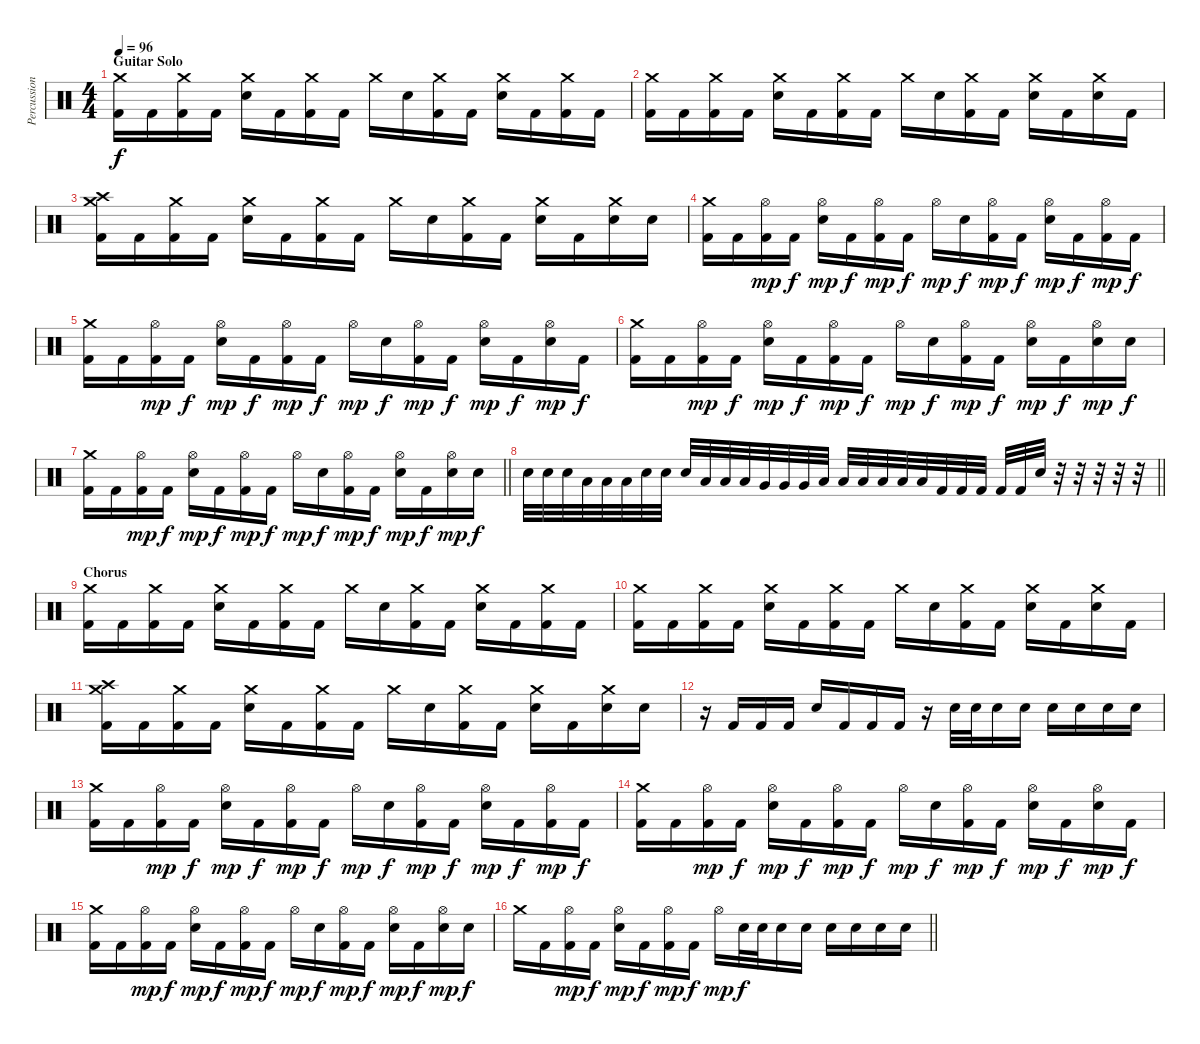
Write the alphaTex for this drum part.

\track ("Percussion" "Percussion") {instrument percussion}
\staff {score}
\articulation defaults
\ts (4 4)
\section ("" "Guitar Solo")
\tempo 96
\clef neutral
\ks c
("Crash medium (hit)" "Kick (hit) 2").16{dy f} "Kick (hit) 2".16 ("Crash medium (hit)" "Kick (hit) 2").16 "Kick (hit) 2".16 ("Crash medium (hit)" "Electric Snare (hit)").16 "Kick (hit) 2".16 ("Crash medium (hit)" "Kick (hit) 2").16 "Kick (hit) 2".16 "Crash medium (hit)".16 "Electric Snare (hit)".16 ("Crash medium (hit)" "Kick (hit) 2").16 "Kick (hit) 2".16 ("Crash medium (hit)" "Electric Snare (hit)").16 "Kick (hit) 2".16 ("Crash medium (hit)" "Kick (hit) 2").16 "Kick (hit) 2".16 |
("Crash medium (hit)" "Kick (hit) 2").16 "Kick (hit) 2".16 ("Crash medium (hit)" "Kick (hit) 2").16 "Kick (hit) 2".16 ("Crash medium (hit)" "Electric Snare (hit)").16 "Kick (hit) 2".16 ("Crash medium (hit)" "Kick (hit) 2").16 "Kick (hit) 2".16 "Crash medium (hit)".16 "Electric Snare (hit)".16 ("Crash medium (hit)" "Kick (hit) 2").16 "Kick (hit) 2".16 ("Crash medium (hit)" "Electric Snare (hit)").16 "Kick (hit) 2".16 ("Crash medium (hit)" "Electric Snare (hit)").16 "Kick (hit) 2".16 |
("Crash high (hit)" "Crash medium (hit)" "Kick (hit) 2").16 "Kick (hit) 2".16 ("Crash medium (hit)" "Kick (hit) 2").16 "Kick (hit) 2".16 ("Crash medium (hit)" "Electric Snare (hit)").16 "Kick (hit) 2".16 ("Crash medium (hit)" "Kick (hit) 2").16 "Kick (hit) 2".16 "Crash medium (hit)".16 "Electric Snare (hit)".16 ("Crash medium (hit)" "Kick (hit) 2").16 "Kick (hit) 2".16 ("Crash medium (hit)" "Electric Snare (hit)").16 "Kick (hit) 2".16 ("Crash medium (hit)" "Electric Snare (hit)").16 "Electric Snare (hit)".16 |
("Crash medium (hit)" "Kick (hit) 2").16 "Kick (hit) 2".16 ("Hi-Hat (open)" "Kick (hit) 2").16{dy mp} "Kick (hit) 2".16{dy f} ("Hi-Hat (open)" "Electric Snare (hit)").16{dy mp} "Kick (hit) 2".16{dy f} ("Hi-Hat (open)" "Kick (hit) 2").16{dy mp} "Kick (hit) 2".16{dy f} "Hi-Hat (open)".16{dy mp} "Electric Snare (hit)".16{dy f} ("Hi-Hat (open)" "Kick (hit) 2").16{dy mp} "Kick (hit) 2".16{dy f} ("Hi-Hat (open)" "Electric Snare (hit)").16{dy mp} "Kick (hit) 2".16{dy f} ("Hi-Hat (open)" "Kick (hit) 2").16{dy mp} "Kick (hit) 2".16{dy f} |
("Crash medium (hit)" "Kick (hit) 2").16 "Kick (hit) 2".16 ("Hi-Hat (open)" "Kick (hit) 2").16{dy mp} "Kick (hit) 2".16{dy f} ("Hi-Hat (open)" "Electric Snare (hit)").16{dy mp} "Kick (hit) 2".16{dy f} ("Hi-Hat (open)" "Kick (hit) 2").16{dy mp} "Kick (hit) 2".16{dy f} "Hi-Hat (open)".16{dy mp} "Electric Snare (hit)".16{dy f} ("Hi-Hat (open)" "Kick (hit) 2").16{dy mp} "Kick (hit) 2".16{dy f} ("Hi-Hat (open)" "Electric Snare (hit)").16{dy mp} "Kick (hit) 2".16{dy f} ("Hi-Hat (open)" "Electric Snare (hit)").16{dy mp} "Kick (hit) 2".16{dy f} |
("Crash medium (hit)" "Kick (hit) 2").16 "Kick (hit) 2".16 ("Hi-Hat (open)" "Kick (hit) 2").16{dy mp} "Kick (hit) 2".16{dy f} ("Hi-Hat (open)" "Electric Snare (hit)").16{dy mp} "Kick (hit) 2".16{dy f} ("Hi-Hat (open)" "Kick (hit) 2").16{dy mp} "Kick (hit) 2".16{dy f} "Hi-Hat (open)".16{dy mp} "Electric Snare (hit)".16{dy f} ("Hi-Hat (open)" "Kick (hit) 2").16{dy mp} "Kick (hit) 2".16{dy f} ("Hi-Hat (open)" "Electric Snare (hit)").16{dy mp} "Kick (hit) 2".16{dy f} ("Hi-Hat (open)" "Electric Snare (hit)").16{dy mp} "Electric Snare (hit)".16{dy f} |
\barLineRight lightlight
("Crash medium (hit)" "Kick (hit) 2").16 "Kick (hit) 2".16 ("Hi-Hat (open)" "Kick (hit) 2").16{dy mp} "Kick (hit) 2".16{dy f} ("Hi-Hat (open)" "Electric Snare (hit)").16{dy mp} "Kick (hit) 2".16{dy f} ("Hi-Hat (open)" "Kick (hit) 2").16{dy mp} "Kick (hit) 2".16{dy f} "Hi-Hat (open)".16{dy mp} "Electric Snare (hit)".16{dy f} ("Hi-Hat (open)" "Kick (hit) 2").16{dy mp} "Kick (hit) 2".16{dy f} ("Hi-Hat (open)" "Electric Snare (hit)").16{dy mp} "Kick (hit) 2".16{dy f} ("Hi-Hat (open)" "Electric Snare (hit)").16{dy mp} "Electric Snare (hit)".16{dy f} |
\barLineRight lightlight "Electric Snare (hit)".32 "Electric Snare (hit)".32 "Electric Snare (hit)".32 "Low Tom (hit)".32 "Low Tom (hit)".32 "Low Tom (hit)".32 "Electric Snare (hit)".32 "Electric Snare (hit)".32 "Electric Snare (hit)".32 "Low Tom (hit)".32 "Low Tom (hit)".32 "Low Tom (hit)".32 "Very Low Tom (hit)".32 "Very Low Tom (hit)".32 "Very Low Tom (hit)".32 "Low Floor Tom (hit)".32 "Low Floor Tom (hit)".32 "Low Floor Tom (hit)".32 "Low Floor Tom (hit)".32 "Low Floor Tom (hit)".32 "Low Floor Tom (hit)".32 "Kick (hit) 2".32 "Kick (hit) 2".32 "Kick (hit) 2".32 "Kick (hit) 2".32 "Kick (hit) 2".32 "Electric Snare (hit)".32
r.32 r.32 r.32 r.32 r.32 |
\section ("" "Chorus")
("Crash medium (hit)" "Kick (hit) 2").16 "Kick (hit) 2".16 ("Crash medium (hit)" "Kick (hit) 2").16 "Kick (hit) 2".16 ("Crash medium (hit)" "Electric Snare (hit)").16 "Kick (hit) 2".16 ("Crash medium (hit)" "Kick (hit) 2").16 "Kick (hit) 2".16 "Crash medium (hit)".16 "Electric Snare (hit)".16 ("Crash medium (hit)" "Kick (hit) 2").16 "Kick (hit) 2".16 ("Crash medium (hit)" "Electric Snare (hit)").16 "Kick (hit) 2".16 ("Crash medium (hit)" "Kick (hit) 2").16 "Kick (hit) 2".16 |
("Crash medium (hit)" "Kick (hit) 2").16 "Kick (hit) 2".16 ("Crash medium (hit)" "Kick (hit) 2").16 "Kick (hit) 2".16 ("Crash medium (hit)" "Electric Snare (hit)").16 "Kick (hit) 2".16 ("Crash medium (hit)" "Kick (hit) 2").16 "Kick (hit) 2".16 "Crash medium (hit)".16 "Electric Snare (hit)".16 ("Crash medium (hit)" "Kick (hit) 2").16 "Kick (hit) 2".16 ("Crash medium (hit)" "Electric Snare (hit)").16 "Kick (hit) 2".16 ("Crash medium (hit)" "Electric Snare (hit)").16 "Kick (hit) 2".16 |
("Crash high (hit)" "Crash medium (hit)" "Kick (hit) 2").16 "Kick (hit) 2".16 ("Crash medium (hit)" "Kick (hit) 2").16 "Kick (hit) 2".16 ("Crash medium (hit)" "Electric Snare (hit)").16 "Kick (hit) 2".16 ("Crash medium (hit)" "Kick (hit) 2").16 "Kick (hit) 2".16 "Crash medium (hit)".16 "Electric Snare (hit)".16 ("Crash medium (hit)" "Kick (hit) 2").16 "Kick (hit) 2".16 ("Crash medium (hit)" "Electric Snare (hit)").16 "Kick (hit) 2".16 ("Crash medium (hit)" "Electric Snare (hit)").16 "Electric Snare (hit)".16 |
r.16 "Kick (hit) 2".16 "Kick (hit) 2".16 "Kick (hit) 2".16 "Electric Snare (hit)".16 "Kick (hit) 2".16 "Kick (hit) 2".16 "Kick (hit) 2".16 r.16 "Electric Snare (hit)".32 "Electric Snare (hit)".32 "Electric Snare (hit)".16 "Electric Snare (hit)".16 "Electric Snare (hit)".16 "Electric Snare (hit)".16 "Electric Snare (hit)".16 "Electric Snare (hit)".16 |
("Crash medium (hit)" "Kick (hit) 2").16 "Kick (hit) 2".16 ("Hi-Hat (open)" "Kick (hit) 2").16{dy mp} "Kick (hit) 2".16{dy f} ("Hi-Hat (open)" "Electric Snare (hit)").16{dy mp} "Kick (hit) 2".16{dy f} ("Hi-Hat (open)" "Kick (hit) 2").16{dy mp} "Kick (hit) 2".16{dy f} "Hi-Hat (open)".16{dy mp} "Electric Snare (hit)".16{dy f} ("Hi-Hat (open)" "Kick (hit) 2").16{dy mp} "Kick (hit) 2".16{dy f} ("Hi-Hat (open)" "Electric Snare (hit)").16{dy mp} "Kick (hit) 2".16{dy f} ("Hi-Hat (open)" "Kick (hit) 2").16{dy mp} "Kick (hit) 2".16{dy f} |
("Crash medium (hit)" "Kick (hit) 2").16 "Kick (hit) 2".16 ("Hi-Hat (open)" "Kick (hit) 2").16{dy mp} "Kick (hit) 2".16{dy f} ("Hi-Hat (open)" "Electric Snare (hit)").16{dy mp} "Kick (hit) 2".16{dy f} ("Hi-Hat (open)" "Kick (hit) 2").16{dy mp} "Kick (hit) 2".16{dy f} "Hi-Hat (open)".16{dy mp} "Electric Snare (hit)".16{dy f} ("Hi-Hat (open)" "Kick (hit) 2").16{dy mp} "Kick (hit) 2".16{dy f} ("Hi-Hat (open)" "Electric Snare (hit)").16{dy mp} "Kick (hit) 2".16{dy f} ("Hi-Hat (open)" "Electric Snare (hit)").16{dy mp} "Kick (hit) 2".16{dy f} |
("Crash medium (hit)" "Kick (hit) 2").16 "Kick (hit) 2".16 ("Hi-Hat (open)" "Kick (hit) 2").16{dy mp} "Kick (hit) 2".16{dy f} ("Hi-Hat (open)" "Electric Snare (hit)").16{dy mp} "Kick (hit) 2".16{dy f} ("Hi-Hat (open)" "Kick (hit) 2").16{dy mp} "Kick (hit) 2".16{dy f} "Hi-Hat (open)".16{dy mp} "Electric Snare (hit)".16{dy f} ("Hi-Hat (open)" "Kick (hit) 2").16{dy mp} "Kick (hit) 2".16{dy f} ("Hi-Hat (open)" "Electric Snare (hit)").16{dy mp} "Kick (hit) 2".16{dy f} ("Hi-Hat (open)" "Electric Snare (hit)").16{dy mp} "Electric Snare (hit)".16{dy f} |
\barLineRight lightlight "Crash medium (hit)".16 "Kick (hit) 2".16
("Hi-Hat (open)" "Kick (hit) 2").16{dy mp} "Kick (hit) 2".16{dy f} ("Hi-Hat (open)" "Electric Snare (hit)").16{dy mp} "Kick (hit) 2".16{dy f} ("Hi-Hat (open)" "Kick (hit) 2").16{dy mp} "Kick (hit) 2".16{dy f} "Hi-Hat (open)".16{dy mp} "Electric Snare (hit)".32{dy f} "Electric Snare (hit)".32 "Electric Snare (hit)".16 "Electric Snare (hit)".16 "Electric Snare (hit)".16 "Electric Snare (hit)".16 "Electric Snare (hit)".16 "Electric Snare (hit)".16
